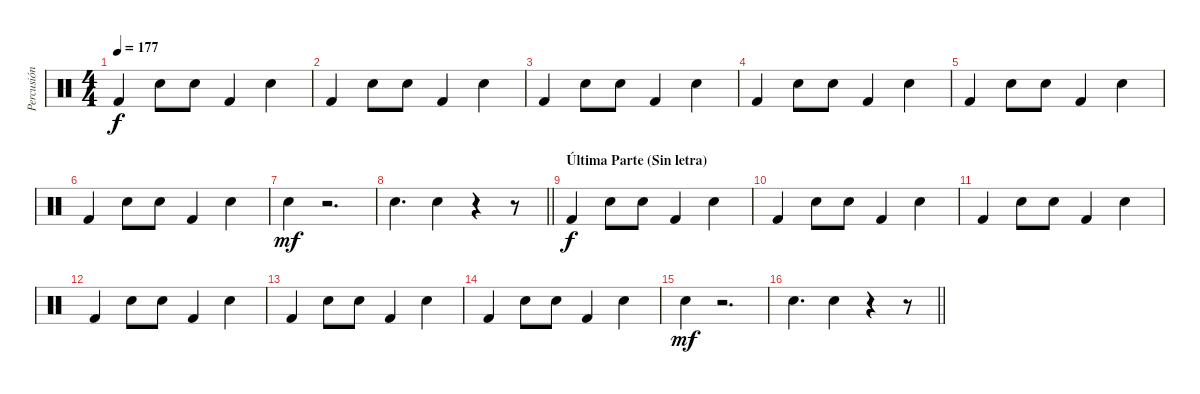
\track ("Percusión" "Percusión") {instrument percussion}
\staff {score}
\articulation defaults
\ts (4 4)
\tempo 177
\clef neutral
\ks c "Kick (hit) 2".4{dy f balance 8} "Electric Snare (hit)".8 "Electric Snare (hit)".8 "Kick (hit) 2".4 "Electric Snare (hit)".4
|
"Kick (hit) 2".4 "Electric Snare (hit)".8 "Electric Snare (hit)".8 "Kick (hit) 2".4 "Electric Snare (hit)".4 |
"Kick (hit) 2".4 "Electric Snare (hit)".8 "Electric Snare (hit)".8 "Kick (hit) 2".4 "Electric Snare (hit)".4 |
"Kick (hit) 2".4 "Electric Snare (hit)".8 "Electric Snare (hit)".8 "Kick (hit) 2".4 "Electric Snare (hit)".4 |
"Kick (hit) 2".4 "Electric Snare (hit)".8 "Electric Snare (hit)".8 "Kick (hit) 2".4 "Electric Snare (hit)".4 |
"Kick (hit) 2".4 "Electric Snare (hit)".8 "Electric Snare (hit)".8 "Kick (hit) 2".4 "Electric Snare (hit)".4 |
"Snare (hit) 2".4{dy mf} r.2{d} |
\barLineRight lightlight "Snare (hit) 2".4{d} "Snare (hit) 2".4
r.4 r.8 |
\section ("" "Última Parte (Sin letra)")
"Kick (hit) 2".4{dy f balance 8} "Electric Snare (hit)".8 "Electric Snare (hit)".8 "Kick (hit) 2".4 "Electric Snare (hit)".4 |
"Kick (hit) 2".4 "Electric Snare (hit)".8 "Electric Snare (hit)".8 "Kick (hit) 2".4 "Electric Snare (hit)".4 |
"Kick (hit) 2".4 "Electric Snare (hit)".8 "Electric Snare (hit)".8 "Kick (hit) 2".4 "Electric Snare (hit)".4 |
"Kick (hit) 2".4 "Electric Snare (hit)".8 "Electric Snare (hit)".8 "Kick (hit) 2".4 "Electric Snare (hit)".4 |
"Kick (hit) 2".4 "Electric Snare (hit)".8 "Electric Snare (hit)".8 "Kick (hit) 2".4 "Electric Snare (hit)".4 |
"Kick (hit) 2".4 "Electric Snare (hit)".8 "Electric Snare (hit)".8 "Kick (hit) 2".4 "Electric Snare (hit)".4 |
"Snare (hit) 2".4{dy mf} r.2{d} |
\barLineRight lightlight "Snare (hit) 2".4{d} "Snare (hit) 2".4
r.4 r.8
